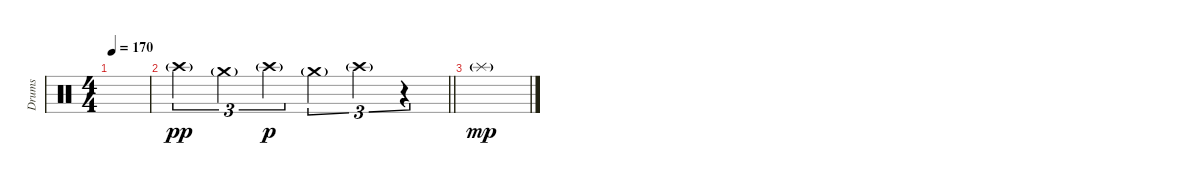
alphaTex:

\track ("Drums" "Drums") {instrument percussion}
\staff {score}
\articulation defaults
\ts (4 4)
\tempo 170
\clef neutral
\ks c
|
\barLineRight lightlight "Crash high (hit)"{g}.4{tu (3 2) dy pp} "Crash medium (hit)"{g}.4{tu (3 2)} "Crash high (hit)"{g}.4{tu (3 2) dy p} "Crash medium (hit)"{g}.4{tu (3 2)} "Crash high (hit)"{g}.4{tu (3 2)}
r.4{tu (3 2)} |
"Splash (hit)"{g}.1{dy mp}
